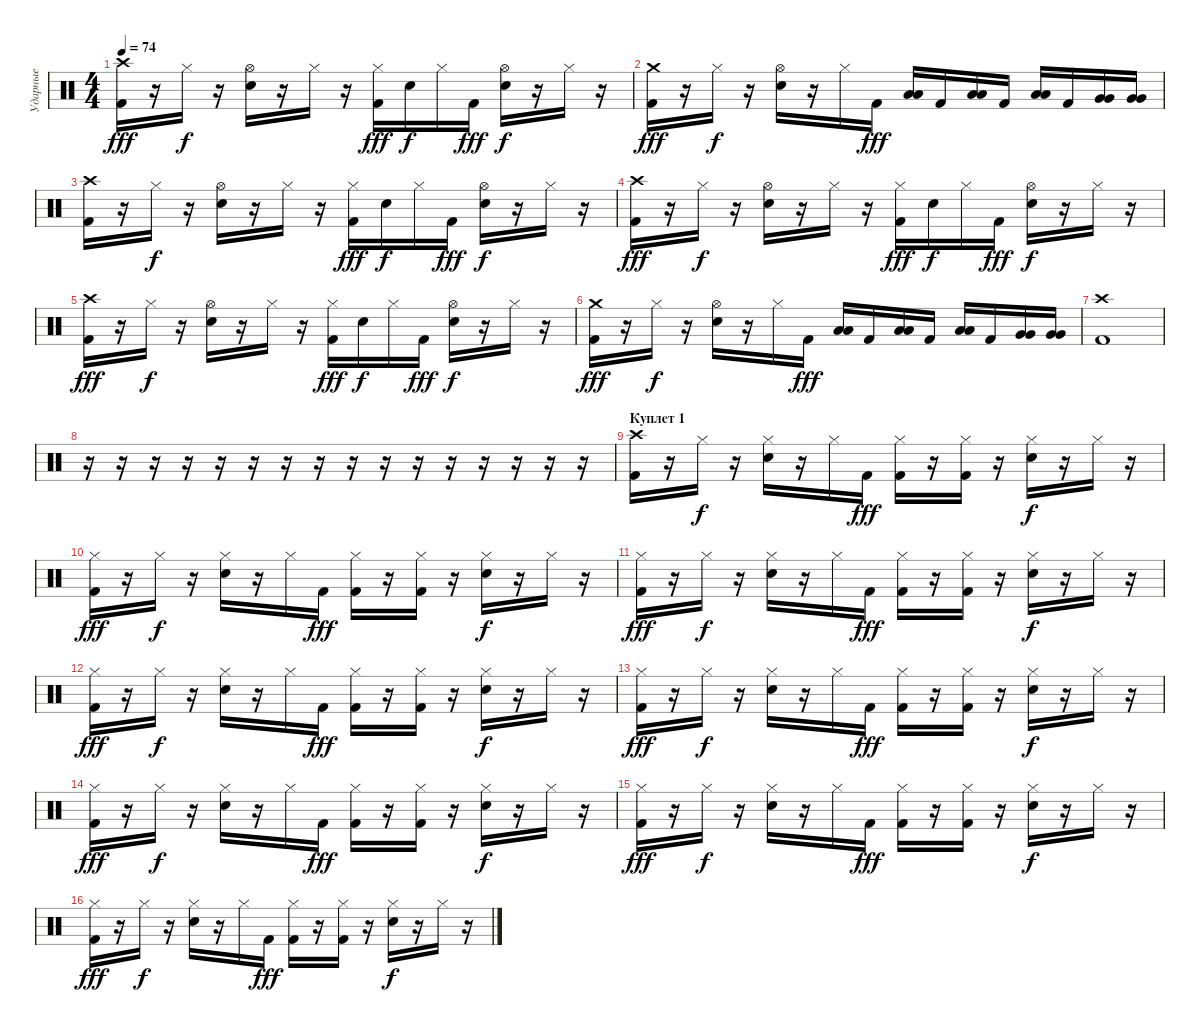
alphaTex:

\track ("Ударные" "Ударные") {instrument percussion}
\staff {score}
\articulation defaults
\ts (4 4)
\tempo 74
\clef neutral
\ks c
("Crash high (hit)" "Kick (hit) 2").16{dy fff} r.16 "Hi-Hat (closed)".16{dy f} r.16 ("Hi-Hat (open)" "Electric Snare (hit)").16 r.16 "Hi-Hat (closed)".16 r.16 ("Hi-Hat (closed)" "Kick (hit) 2").16{dy fff} "Electric Snare (hit)".16{dy f} "Hi-Hat (closed)".16 "Kick (hit) 2".16{dy fff} ("Hi-Hat (open)" "Electric Snare (hit)").16{dy f} r.16 "Hi-Hat (closed)".16 r.16 |
("Crash medium (hit)" "Kick (hit) 2").16{dy fff} r.16 "Hi-Hat (closed)".16{dy f} r.16 ("Hi-Hat (open)" "Electric Snare (hit)").16 r.16 "Hi-Hat (closed)".16 "Kick (hit) 2".16{dy fff} ("Low Tom (hit)" "Low Tom (hit)").16 "Kick (hit) 2".16 ("Low Floor Tom (hit)" "Low Floor Tom (hit)").16 "Kick (hit) 2".16 ("Low Tom (hit)" "Low Tom (hit)").16 "Kick (hit) 2".16 ("Very Low Tom (hit)" "Very Low Tom (hit)").16 ("Very Low Tom (hit)" "Very Low Tom (hit)").16 |
("Crash high (hit)" "Kick (hit) 2").16 r.16 "Hi-Hat (closed)".16{dy f} r.16 ("Hi-Hat (open)" "Electric Snare (hit)").16 r.16 "Hi-Hat (closed)".16 r.16 ("Hi-Hat (closed)" "Kick (hit) 2").16{dy fff} "Electric Snare (hit)".16{dy f} "Hi-Hat (closed)".16 "Kick (hit) 2".16{dy fff} ("Hi-Hat (open)" "Electric Snare (hit)").16{dy f} r.16 "Hi-Hat (closed)".16 r.16 |
("Crash high (hit)" "Kick (hit) 2").16{dy fff} r.16 "Hi-Hat (closed)".16{dy f} r.16 ("Hi-Hat (open)" "Electric Snare (hit)").16 r.16 "Hi-Hat (closed)".16 r.16 ("Hi-Hat (closed)" "Kick (hit) 2").16{dy fff} "Electric Snare (hit)".16{dy f} "Hi-Hat (closed)".16 "Kick (hit) 2".16{dy fff} ("Hi-Hat (open)" "Electric Snare (hit)").16{dy f} r.16 "Hi-Hat (closed)".16 r.16 |
("Crash high (hit)" "Kick (hit) 2").16{dy fff} r.16 "Hi-Hat (closed)".16{dy f} r.16 ("Hi-Hat (open)" "Electric Snare (hit)").16 r.16 "Hi-Hat (closed)".16 r.16 ("Hi-Hat (closed)" "Kick (hit) 2").16{dy fff} "Electric Snare (hit)".16{dy f} "Hi-Hat (closed)".16 "Kick (hit) 2".16{dy fff} ("Hi-Hat (open)" "Electric Snare (hit)").16{dy f} r.16 "Hi-Hat (closed)".16 r.16 |
("Crash medium (hit)" "Kick (hit) 2").16{dy fff} r.16 "Hi-Hat (closed)".16{dy f} r.16 ("Hi-Hat (open)" "Electric Snare (hit)").16 r.16 "Hi-Hat (closed)".16 "Kick (hit) 2".16{dy fff} ("Low Tom (hit)" "Low Tom (hit)").16 "Kick (hit) 2".16 ("Low Floor Tom (hit)" "Low Floor Tom (hit)").16 "Kick (hit) 2".16 ("Low Tom (hit)" "Low Tom (hit)").16 "Kick (hit) 2".16 ("Very Low Tom (hit)" "Very Low Tom (hit)").16 ("Very Low Tom (hit)" "Very Low Tom (hit)").16 |
("Crash high (hit)" "Kick (hit) 2").1 |
r.16 r.16 r.16 r.16 r.16 r.16 r.16 r.16 r.16 r.16 r.16 r.16 r.16 r.16 r.16 r.16 |
\section ("" "Куплет 1")
("Crash high (hit)" "Kick (hit) 2").16 r.16 "Hi-Hat (closed)".16{dy f} r.16 ("Hi-Hat (closed)" "Electric Snare (hit)").16 r.16 "Hi-Hat (closed)".16 "Kick (hit) 2".16{dy fff} ("Hi-Hat (closed)" "Kick (hit) 2").16 r.16 ("Hi-Hat (closed)" "Kick (hit) 2").16 r.16 ("Hi-Hat (closed)" "Electric Snare (hit)").16{dy f} r.16 "Hi-Hat (closed)".16 r.16 |
("Hi-Hat (closed)" "Kick (hit) 2").16{dy fff} r.16 "Hi-Hat (closed)".16{dy f} r.16 ("Hi-Hat (closed)" "Electric Snare (hit)").16 r.16 "Hi-Hat (closed)".16 "Kick (hit) 2".16{dy fff} ("Hi-Hat (closed)" "Kick (hit) 2").16 r.16 ("Hi-Hat (closed)" "Kick (hit) 2").16 r.16 ("Hi-Hat (closed)" "Electric Snare (hit)").16{dy f} r.16 "Hi-Hat (closed)".16 r.16 |
("Hi-Hat (closed)" "Kick (hit) 2").16{dy fff} r.16 "Hi-Hat (closed)".16{dy f} r.16 ("Hi-Hat (closed)" "Electric Snare (hit)").16 r.16 "Hi-Hat (closed)".16 "Kick (hit) 2".16{dy fff} ("Hi-Hat (closed)" "Kick (hit) 2").16 r.16 ("Hi-Hat (closed)" "Kick (hit) 2").16 r.16 ("Hi-Hat (closed)" "Electric Snare (hit)").16{dy f} r.16 "Hi-Hat (closed)".16 r.16 |
("Hi-Hat (closed)" "Kick (hit) 2").16{dy fff} r.16 "Hi-Hat (closed)".16{dy f} r.16 ("Hi-Hat (closed)" "Electric Snare (hit)").16 r.16 "Hi-Hat (closed)".16 "Kick (hit) 2".16{dy fff} ("Hi-Hat (closed)" "Kick (hit) 2").16 r.16 ("Hi-Hat (closed)" "Kick (hit) 2").16 r.16 ("Hi-Hat (closed)" "Electric Snare (hit)").16{dy f} r.16 "Hi-Hat (closed)".16 r.16 |
("Hi-Hat (closed)" "Kick (hit) 2").16{dy fff} r.16 "Hi-Hat (closed)".16{dy f} r.16 ("Hi-Hat (closed)" "Electric Snare (hit)").16 r.16 "Hi-Hat (closed)".16 "Kick (hit) 2".16{dy fff} ("Hi-Hat (closed)" "Kick (hit) 2").16 r.16 ("Hi-Hat (closed)" "Kick (hit) 2").16 r.16 ("Hi-Hat (closed)" "Electric Snare (hit)").16{dy f} r.16 "Hi-Hat (closed)".16 r.16 |
("Hi-Hat (closed)" "Kick (hit) 2").16{dy fff} r.16 "Hi-Hat (closed)".16{dy f} r.16 ("Hi-Hat (closed)" "Electric Snare (hit)").16 r.16 "Hi-Hat (closed)".16 "Kick (hit) 2".16{dy fff} ("Hi-Hat (closed)" "Kick (hit) 2").16 r.16 ("Hi-Hat (closed)" "Kick (hit) 2").16 r.16 ("Hi-Hat (closed)" "Electric Snare (hit)").16{dy f} r.16 "Hi-Hat (closed)".16 r.16 |
("Hi-Hat (closed)" "Kick (hit) 2").16{dy fff} r.16 "Hi-Hat (closed)".16{dy f} r.16 ("Hi-Hat (closed)" "Electric Snare (hit)").16 r.16 "Hi-Hat (closed)".16 "Kick (hit) 2".16{dy fff} ("Hi-Hat (closed)" "Kick (hit) 2").16 r.16 ("Hi-Hat (closed)" "Kick (hit) 2").16 r.16 ("Hi-Hat (closed)" "Electric Snare (hit)").16{dy f} r.16 "Hi-Hat (closed)".16 r.16 |
("Hi-Hat (closed)" "Kick (hit) 2").16{dy fff} r.16 "Hi-Hat (closed)".16{dy f} r.16 ("Hi-Hat (closed)" "Electric Snare (hit)").16 r.16 "Hi-Hat (closed)".16 "Kick (hit) 2".16{dy fff} ("Hi-Hat (closed)" "Kick (hit) 2").16 r.16 ("Hi-Hat (closed)" "Kick (hit) 2").16 r.16 ("Hi-Hat (closed)" "Electric Snare (hit)").16{dy f} r.16 "Hi-Hat (closed)".16 r.16
